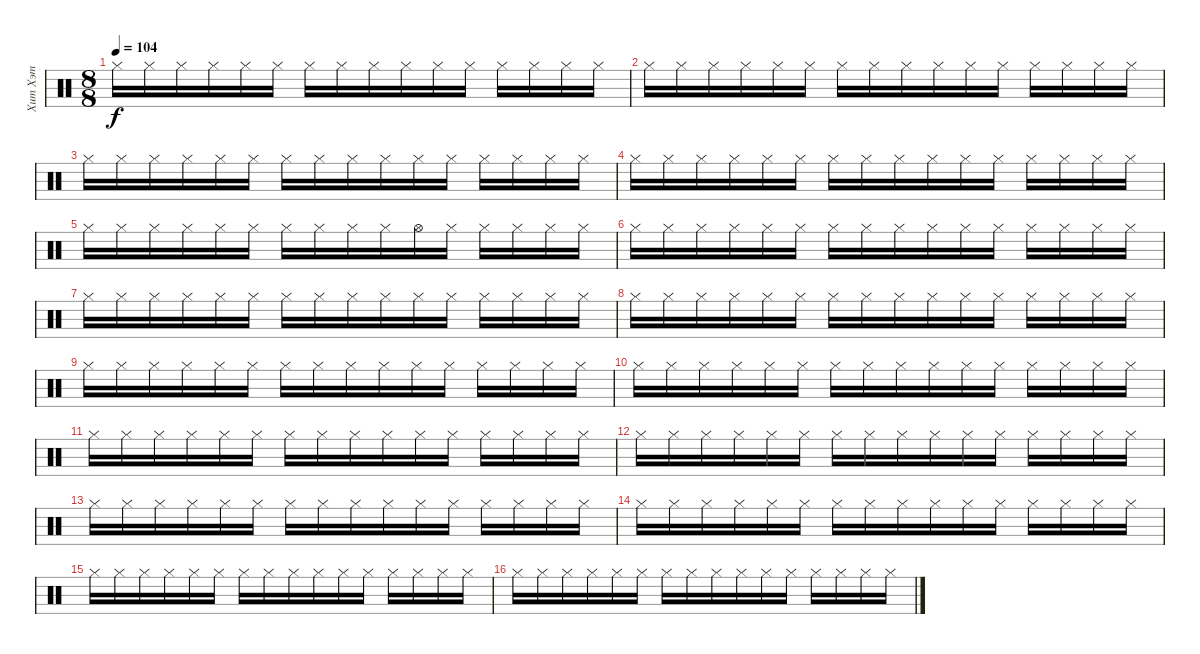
\track ("Хит Хэт" "Хит Хэт") {instrument percussion}
\staff {score}
\articulation defaults
\ts (8 8)
\tempo 104
\clef neutral
\ks c "Hi-Hat (closed)".16{dy f} "Hi-Hat (closed)".16 "Hi-Hat (closed)".16 "Hi-Hat (closed)".16 "Hi-Hat (closed)".16 "Hi-Hat (closed)".16 "Hi-Hat (closed)".16 "Hi-Hat (closed)".16 "Hi-Hat (closed)".16 "Hi-Hat (closed)".16 "Hi-Hat (closed)".16 "Hi-Hat (closed)".16 "Hi-Hat (closed)".16 "Hi-Hat (closed)".16 "Hi-Hat (closed)".16 "Hi-Hat (closed)".16
|
"Hi-Hat (closed)".16 "Hi-Hat (closed)".16 "Hi-Hat (closed)".16 "Hi-Hat (closed)".16 "Hi-Hat (closed)".16 "Hi-Hat (closed)".16 "Hi-Hat (closed)".16 "Hi-Hat (closed)".16 "Hi-Hat (closed)".16 "Hi-Hat (closed)".16 "Hi-Hat (closed)".16 "Hi-Hat (closed)".16 "Hi-Hat (closed)".16 "Hi-Hat (closed)".16 "Hi-Hat (closed)".16 "Hi-Hat (closed)".16 |
"Hi-Hat (closed)".16 "Hi-Hat (closed)".16 "Hi-Hat (closed)".16 "Hi-Hat (closed)".16 "Hi-Hat (closed)".16 "Hi-Hat (closed)".16 "Hi-Hat (closed)".16 "Hi-Hat (closed)".16 "Hi-Hat (closed)".16 "Hi-Hat (closed)".16 "Hi-Hat (closed)".16 "Hi-Hat (closed)".16 "Hi-Hat (closed)".16 "Hi-Hat (closed)".16 "Hi-Hat (closed)".16 "Hi-Hat (closed)".16 |
"Hi-Hat (closed)".16 "Hi-Hat (closed)".16 "Hi-Hat (closed)".16 "Hi-Hat (closed)".16 "Hi-Hat (closed)".16 "Hi-Hat (closed)".16 "Hi-Hat (closed)".16 "Hi-Hat (closed)".16 "Hi-Hat (closed)".16 "Hi-Hat (closed)".16 "Hi-Hat (closed)".16 "Hi-Hat (closed)".16 "Hi-Hat (closed)".16 "Hi-Hat (closed)".16 "Hi-Hat (closed)".16 "Hi-Hat (closed)".16 |
"Hi-Hat (closed)".16 "Hi-Hat (closed)".16 "Hi-Hat (closed)".16 "Hi-Hat (closed)".16 "Hi-Hat (closed)".16 "Hi-Hat (closed)".16 "Hi-Hat (closed)".16 "Hi-Hat (closed)".16 "Hi-Hat (closed)".16 "Hi-Hat (closed)".16 "Hi-Hat (open)".16 "Hi-Hat (closed)".16 "Hi-Hat (closed)".16 "Hi-Hat (closed)".16 "Hi-Hat (closed)".16 "Hi-Hat (closed)".16 |
"Hi-Hat (closed)".16 "Hi-Hat (closed)".16 "Hi-Hat (closed)".16 "Hi-Hat (closed)".16 "Hi-Hat (closed)".16 "Hi-Hat (closed)".16 "Hi-Hat (closed)".16 "Hi-Hat (closed)".16 "Hi-Hat (closed)".16 "Hi-Hat (closed)".16 "Hi-Hat (closed)".16 "Hi-Hat (closed)".16 "Hi-Hat (closed)".16 "Hi-Hat (closed)".16 "Hi-Hat (closed)".16 "Hi-Hat (closed)".16 |
"Hi-Hat (closed)".16 "Hi-Hat (closed)".16 "Hi-Hat (closed)".16 "Hi-Hat (closed)".16 "Hi-Hat (closed)".16 "Hi-Hat (closed)".16 "Hi-Hat (closed)".16 "Hi-Hat (closed)".16 "Hi-Hat (closed)".16 "Hi-Hat (closed)".16 "Hi-Hat (closed)".16 "Hi-Hat (closed)".16 "Hi-Hat (closed)".16 "Hi-Hat (closed)".16 "Hi-Hat (closed)".16 "Hi-Hat (closed)".16 |
"Hi-Hat (closed)".16 "Hi-Hat (closed)".16 "Hi-Hat (closed)".16 "Hi-Hat (closed)".16 "Hi-Hat (closed)".16 "Hi-Hat (closed)".16 "Hi-Hat (closed)".16 "Hi-Hat (closed)".16 "Hi-Hat (closed)".16 "Hi-Hat (closed)".16 "Hi-Hat (closed)".16 "Hi-Hat (closed)".16 "Hi-Hat (closed)".16 "Hi-Hat (closed)".16 "Hi-Hat (closed)".16 "Hi-Hat (closed)".16 |
"Hi-Hat (closed)".16 "Hi-Hat (closed)".16 "Hi-Hat (closed)".16 "Hi-Hat (closed)".16 "Hi-Hat (closed)".16 "Hi-Hat (closed)".16 "Hi-Hat (closed)".16 "Hi-Hat (closed)".16 "Hi-Hat (closed)".16 "Hi-Hat (closed)".16 "Hi-Hat (closed)".16 "Hi-Hat (closed)".16 "Hi-Hat (closed)".16 "Hi-Hat (closed)".16 "Hi-Hat (closed)".16 "Hi-Hat (closed)".16 |
"Hi-Hat (closed)".16 "Hi-Hat (closed)".16 "Hi-Hat (closed)".16 "Hi-Hat (closed)".16 "Hi-Hat (closed)".16 "Hi-Hat (closed)".16 "Hi-Hat (closed)".16 "Hi-Hat (closed)".16 "Hi-Hat (closed)".16 "Hi-Hat (closed)".16 "Hi-Hat (closed)".16 "Hi-Hat (closed)".16 "Hi-Hat (closed)".16 "Hi-Hat (closed)".16 "Hi-Hat (closed)".16 "Hi-Hat (closed)".16 |
"Hi-Hat (closed)".16 "Hi-Hat (closed)".16 "Hi-Hat (closed)".16 "Hi-Hat (closed)".16 "Hi-Hat (closed)".16 "Hi-Hat (closed)".16 "Hi-Hat (closed)".16 "Hi-Hat (closed)".16 "Hi-Hat (closed)".16 "Hi-Hat (closed)".16 "Hi-Hat (closed)".16 "Hi-Hat (closed)".16 "Hi-Hat (closed)".16 "Hi-Hat (closed)".16 "Hi-Hat (closed)".16 "Hi-Hat (closed)".16 |
"Hi-Hat (closed)".16 "Hi-Hat (closed)".16 "Hi-Hat (closed)".16 "Hi-Hat (closed)".16 "Hi-Hat (closed)".16 "Hi-Hat (closed)".16 "Hi-Hat (closed)".16 "Hi-Hat (closed)".16 "Hi-Hat (closed)".16 "Hi-Hat (closed)".16 "Hi-Hat (closed)".16 "Hi-Hat (closed)".16 "Hi-Hat (closed)".16 "Hi-Hat (closed)".16 "Hi-Hat (closed)".16 "Hi-Hat (closed)".16 |
"Hi-Hat (closed)".16 "Hi-Hat (closed)".16 "Hi-Hat (closed)".16 "Hi-Hat (closed)".16 "Hi-Hat (closed)".16 "Hi-Hat (closed)".16 "Hi-Hat (closed)".16 "Hi-Hat (closed)".16 "Hi-Hat (closed)".16 "Hi-Hat (closed)".16 "Hi-Hat (closed)".16 "Hi-Hat (closed)".16 "Hi-Hat (closed)".16 "Hi-Hat (closed)".16 "Hi-Hat (closed)".16 "Hi-Hat (closed)".16 |
"Hi-Hat (closed)".16 "Hi-Hat (closed)".16 "Hi-Hat (closed)".16 "Hi-Hat (closed)".16 "Hi-Hat (closed)".16 "Hi-Hat (closed)".16 "Hi-Hat (closed)".16 "Hi-Hat (closed)".16 "Hi-Hat (closed)".16 "Hi-Hat (closed)".16 "Hi-Hat (closed)".16 "Hi-Hat (closed)".16 "Hi-Hat (closed)".16 "Hi-Hat (closed)".16 "Hi-Hat (closed)".16 "Hi-Hat (closed)".16 |
"Hi-Hat (closed)".16 "Hi-Hat (closed)".16 "Hi-Hat (closed)".16 "Hi-Hat (closed)".16 "Hi-Hat (closed)".16 "Hi-Hat (closed)".16 "Hi-Hat (closed)".16 "Hi-Hat (closed)".16 "Hi-Hat (closed)".16 "Hi-Hat (closed)".16 "Hi-Hat (closed)".16 "Hi-Hat (closed)".16 "Hi-Hat (closed)".16 "Hi-Hat (closed)".16 "Hi-Hat (closed)".16 "Hi-Hat (closed)".16 |
"Hi-Hat (closed)".16 "Hi-Hat (closed)".16 "Hi-Hat (closed)".16 "Hi-Hat (closed)".16 "Hi-Hat (closed)".16 "Hi-Hat (closed)".16 "Hi-Hat (closed)".16 "Hi-Hat (closed)".16 "Hi-Hat (closed)".16 "Hi-Hat (closed)".16 "Hi-Hat (closed)".16 "Hi-Hat (closed)".16 "Hi-Hat (closed)".16 "Hi-Hat (closed)".16 "Hi-Hat (closed)".16 "Hi-Hat (closed)".16
